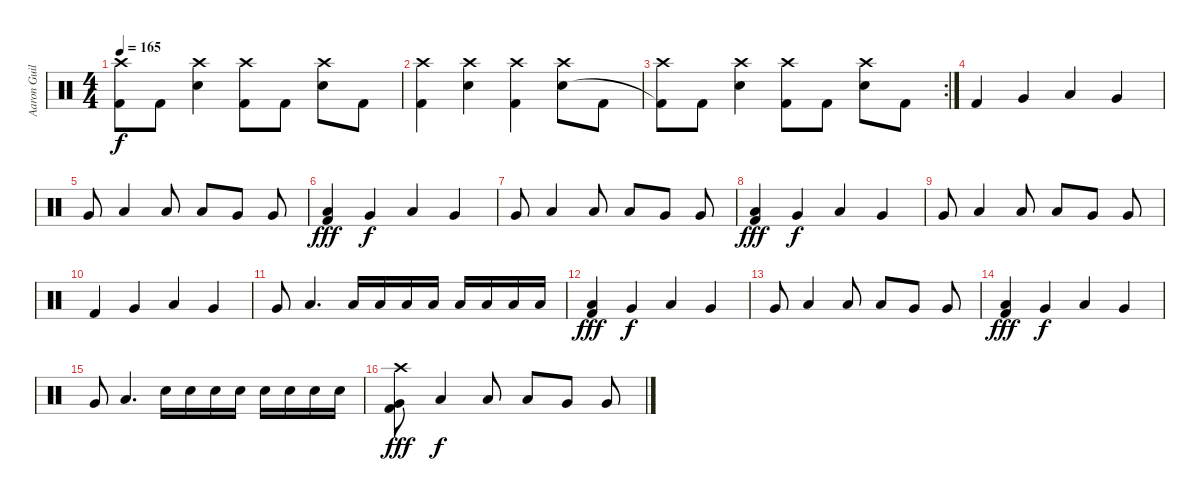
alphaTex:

\track ("Aaron Guillespie" "Aaron Guil") {instrument percussion}
\staff {score}
\articulation defaults
\ts (4 4)
\tempo 165
\clef neutral
\ks c
("Crash high (hit)" "Kick (hit) 2"{t}).8{dy f} "Kick (hit) 2".8 ("Crash high (hit)" "Electric Snare (hit)").4 ("Crash high (hit)" "Kick (hit) 2").8 "Kick (hit) 2".8 ("Crash high (hit)" "Electric Snare (hit)").8 "Kick (hit) 2".8 |
("Crash high (hit)" "Kick (hit) 2").4 ("Crash high (hit)" "Electric Snare (hit)").4 ("Crash high (hit)" "Kick (hit) 2").4 ("Crash high (hit)" "Electric Snare (hit)").8 "Kick (hit) 2".8 |
\rc 2
("Crash high (hit)" "Kick (hit) 2"{t}).8 "Kick (hit) 2".8 ("Crash high (hit)" "Electric Snare (hit)").4 ("Crash high (hit)" "Kick (hit) 2").8 "Kick (hit) 2".8 ("Crash high (hit)" "Electric Snare (hit)").8 "Kick (hit) 2".8 |
"Kick (hit) 2".4 "Very Low Tom (hit)".4 "Low Floor Tom (hit)".4 "Very Low Tom (hit)".4 |
"Very Low Tom (hit)".8 "Low Floor Tom (hit)".4 "Low Floor Tom (hit)".8 "Low Floor Tom (hit)".8 "Very Low Tom (hit)".8 "Very Low Tom (hit)".8 |
("Low Floor Tom (hit)" "Kick (hit) 2").4{dy fff} "Very Low Tom (hit)".4{dy f} "Low Floor Tom (hit)".4 "Very Low Tom (hit)".4 |
"Very Low Tom (hit)".8 "Low Floor Tom (hit)".4 "Low Floor Tom (hit)".8 "Low Floor Tom (hit)".8 "Very Low Tom (hit)".8 "Very Low Tom (hit)".8 |
("Low Floor Tom (hit)" "Kick (hit) 2").4{dy fff} "Very Low Tom (hit)".4{dy f} "Low Floor Tom (hit)".4 "Very Low Tom (hit)".4 |
"Very Low Tom (hit)".8 "Low Floor Tom (hit)".4 "Low Floor Tom (hit)".8 "Low Floor Tom (hit)".8 "Very Low Tom (hit)".8 "Very Low Tom (hit)".8 |
"Kick (hit) 2".4 "Very Low Tom (hit)".4 "Low Floor Tom (hit)".4 "Very Low Tom (hit)".4 |
"Very Low Tom (hit)".8 "Low Floor Tom (hit)".4{d} "Low Floor Tom (hit)".16 "Low Floor Tom (hit)".16 "Low Floor Tom (hit)".16 "Low Floor Tom (hit)".16 "Low Floor Tom (hit)".16 "Low Floor Tom (hit)".16 "Low Floor Tom (hit)".16 "Low Floor Tom (hit)".16 |
("Low Floor Tom (hit)" "Kick (hit) 2").4{dy fff} "Very Low Tom (hit)".4{dy f} "Low Floor Tom (hit)".4 "Very Low Tom (hit)".4 |
"Very Low Tom (hit)".8 "Low Floor Tom (hit)".4 "Low Floor Tom (hit)".8 "Low Floor Tom (hit)".8 "Very Low Tom (hit)".8 "Very Low Tom (hit)".8 |
("Low Floor Tom (hit)" "Kick (hit) 2").4{dy fff} "Very Low Tom (hit)".4{dy f} "Low Floor Tom (hit)".4 "Very Low Tom (hit)".4 |
"Very Low Tom (hit)".8 "Low Floor Tom (hit)".4{d} "Electric Snare (hit)".16 "Electric Snare (hit)".16 "Electric Snare (hit)".16 "Electric Snare (hit)".16 "Electric Snare (hit)".16 "Electric Snare (hit)".16 "Electric Snare (hit)".16 "Electric Snare (hit)".16 |
("Crash high (hit)" "Very Low Tom (hit)" "Kick (hit) 2").8{dy fff} "Low Floor Tom (hit)".4{dy f} "Low Floor Tom (hit)".8 "Low Floor Tom (hit)".8 "Very Low Tom (hit)".8 "Very Low Tom (hit)".8
